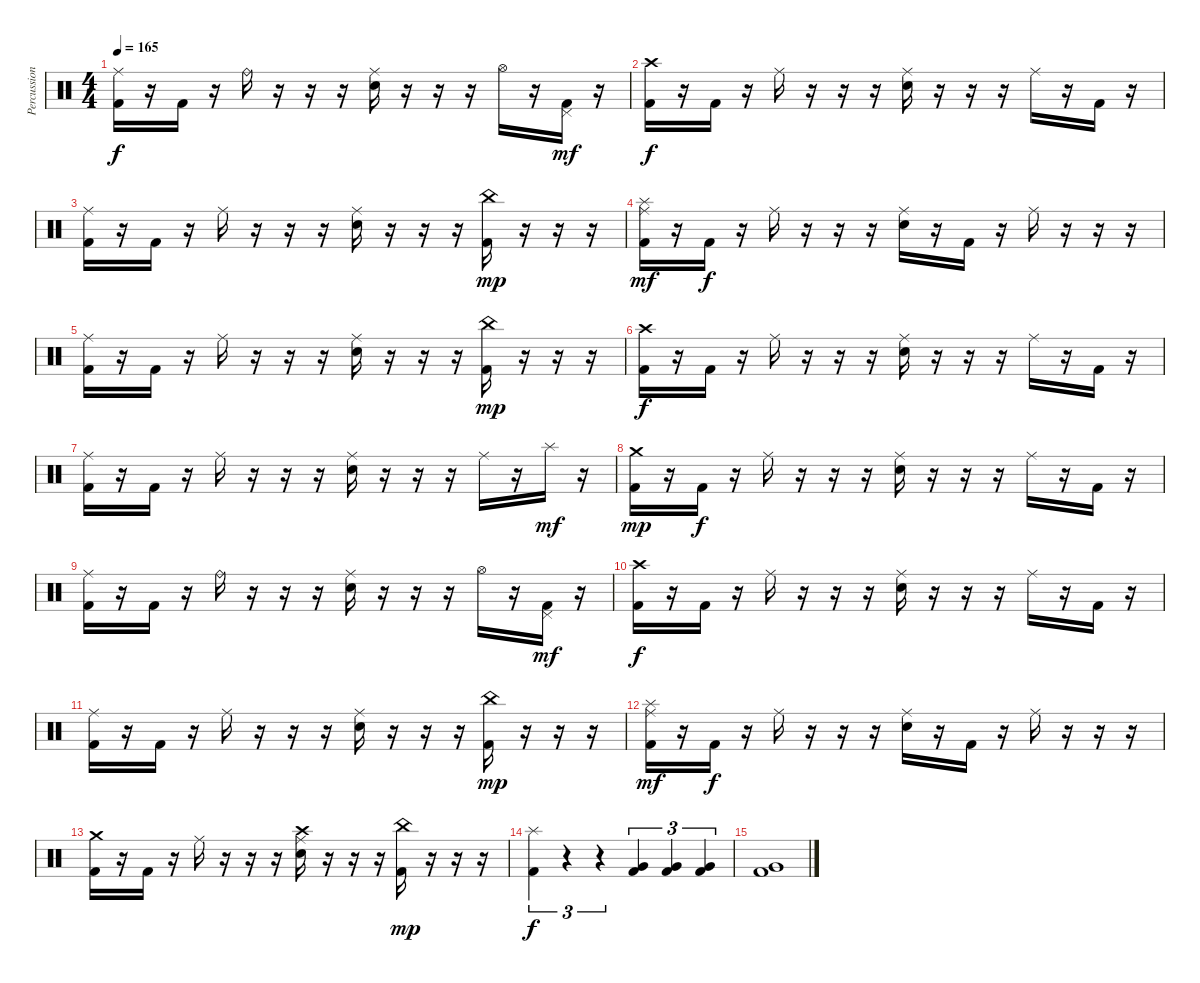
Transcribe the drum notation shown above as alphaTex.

\track ("Percussion" "Percussion") {instrument percussion}
\staff {score}
\articulation defaults
\ts (4 4)
\tempo 165
\clef neutral
\ks c
("Ride (middle)" "Kick (hit) 2").16{dy f} r.16 "Kick (hit) 2".16 r.16 "Ride (bell)".16 r.16 r.16 r.16 ("Ride (middle)" "Snare (hit) 2").16 r.16 r.16 r.16 "Hi-Hat (open)".16 r.16 ("Pedal Hi-Hat (hit)" "Kick (hit) 2").16{dy mf} r.16 |
("Crash high (hit)" "Kick (hit) 2").16{dy f} r.16 "Kick (hit) 2".16 r.16 "Ride (middle)".16 r.16 r.16 r.16 ("Ride (middle)" "Snare (hit) 2").16 r.16 r.16 r.16 "Ride (middle)".16 r.16 "Kick (hit) 2".16 r.16 |
("Ride (middle)" "Kick (hit) 2").16 r.16 "Kick (hit) 2".16 r.16 "Ride (middle)".16 r.16 r.16 r.16 ("Ride (middle)" "Snare (hit) 2").16 r.16 r.16 r.16 ("China (hit)" "Kick (hit) 2").16{dy mp} r.16 r.16 r.16 |
("Splash (hit)" "Ride (middle)" "Kick (hit) 2").16{dy mf} r.16 "Kick (hit) 2".16{dy f} r.16 "Ride (middle)".16 r.16 r.16 r.16 ("Ride (middle)" "Snare (hit) 2").16 r.16 "Kick (hit) 2".16 r.16 "Ride (middle)".16 r.16 r.16 r.16 |
("Ride (middle)" "Kick (hit) 2").16 r.16 "Kick (hit) 2".16 r.16 "Ride (middle)".16 r.16 r.16 r.16 ("Ride (middle)" "Snare (hit) 2").16 r.16 r.16 r.16 ("China (hit)" "Kick (hit) 2").16{dy mp} r.16 r.16 r.16 |
("Crash high (hit)" "Kick (hit) 2").16{dy f} r.16 "Kick (hit) 2".16 r.16 "Ride (middle)".16 r.16 r.16 r.16 ("Ride (middle)" "Snare (hit) 2").16 r.16 r.16 r.16 "Ride (middle)".16 r.16 "Kick (hit) 2".16 r.16 |
("Ride (middle)" "Kick (hit) 2").16 r.16 "Kick (hit) 2".16 r.16 "Ride (middle)".16 r.16 r.16 r.16 ("Ride (middle)" "Snare (hit) 2").16 r.16 r.16 r.16 "Ride (middle)".16 r.16 "Splash (hit)".16{dy mf} r.16 |
("Crash medium (hit)" "Kick (hit) 2").16{dy mp} r.16 "Kick (hit) 2".16{dy f} r.16 "Ride (middle)".16 r.16 r.16 r.16 ("Ride (middle)" "Snare (hit) 2").16 r.16 r.16 r.16 "Ride (middle)".16 r.16 "Kick (hit) 2".16 r.16 |
("Ride (middle)" "Kick (hit) 2").16 r.16 "Kick (hit) 2".16 r.16 "Ride (bell)".16 r.16 r.16 r.16 ("Ride (middle)" "Snare (hit) 2").16 r.16 r.16 r.16 "Hi-Hat (open)".16 r.16 ("Pedal Hi-Hat (hit)" "Kick (hit) 2").16{dy mf} r.16 |
("Crash high (hit)" "Kick (hit) 2").16{dy f} r.16 "Kick (hit) 2".16 r.16 "Ride (middle)".16 r.16 r.16 r.16 ("Ride (middle)" "Snare (hit) 2").16 r.16 r.16 r.16 "Ride (middle)".16 r.16 "Kick (hit) 2".16 r.16 |
("Ride (middle)" "Kick (hit) 2").16 r.16 "Kick (hit) 2".16 r.16 "Ride (middle)".16 r.16 r.16 r.16 ("Ride (middle)" "Snare (hit) 2").16 r.16 r.16 r.16 ("China (hit)" "Kick (hit) 2").16{dy mp} r.16 r.16 r.16 |
("Splash (hit)" "Ride (middle)" "Kick (hit) 2").16{dy mf} r.16 "Kick (hit) 2".16{dy f} r.16 "Ride (middle)".16 r.16 r.16 r.16 ("Ride (middle)" "Snare (hit) 2").16 r.16 "Kick (hit) 2".16 r.16 "Ride (middle)".16 r.16 r.16 r.16 |
("Crash medium (hit)" "Kick (hit) 2").16 r.16 "Kick (hit) 2".16 r.16 "Ride (middle)".16 r.16 r.16 r.16 ("Crash high (hit)" "Ride (middle)" "Snare (hit) 2").16 r.16 r.16 r.16 ("China (hit)" "Kick (hit) 2").16{dy mp} r.16 r.16 r.16 |
("Splash (hit)" "Kick (hit) 2").4{tu (3 2) dy f} r.4{tu (3 2)} r.4{tu (3 2)} ("Very Low Tom (hit)" "Kick (hit) 2").4{tu (3 2)} ("Very Low Tom (hit)" "Kick (hit) 2").4{tu (3 2)} ("Very Low Tom (hit)" "Kick (hit) 2").4{tu (3 2)} |
("Very Low Tom (hit)" "Kick (hit) 2").1
